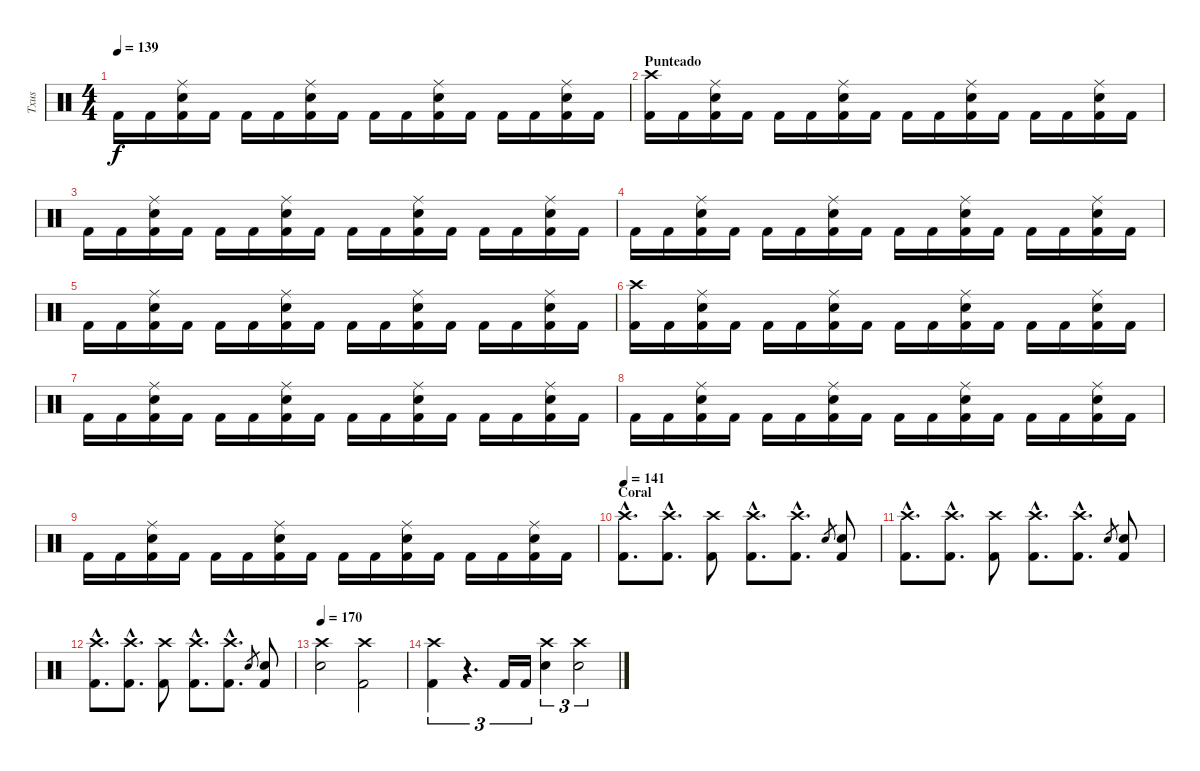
\track ("Txus" "Txus") {instrument percussion}
\staff {score}
\articulation defaults
\ts (4 4)
\tempo 139
\clef neutral
\ks c "Kick (hit) 2".16{dy f} "Kick (hit) 2".16
("Kick (hit) 2" "Electric Snare (hit)" "Ride (middle)").16 "Kick (hit) 2".16 "Kick (hit) 2".16 "Kick (hit) 2".16 ("Kick (hit) 2" "Electric Snare (hit)" "Ride (middle)").16 "Kick (hit) 2".16 "Kick (hit) 2".16 "Kick (hit) 2".16 ("Kick (hit) 2" "Electric Snare (hit)" "Ride (middle)").16 "Kick (hit) 2".16 "Kick (hit) 2".16 "Kick (hit) 2".16 ("Kick (hit) 2" "Electric Snare (hit)" "Ride (middle)").16 "Kick (hit) 2".16 |
\section ("" "Punteado")
("Kick (hit) 2" "Crash high (hit)").16 "Kick (hit) 2".16 ("Kick (hit) 2" "Electric Snare (hit)" "Ride (middle)").16 "Kick (hit) 2".16 "Kick (hit) 2".16 "Kick (hit) 2".16 ("Kick (hit) 2" "Electric Snare (hit)" "Ride (middle)").16 "Kick (hit) 2".16 "Kick (hit) 2".16 "Kick (hit) 2".16 ("Kick (hit) 2" "Electric Snare (hit)" "Ride (middle)").16 "Kick (hit) 2".16 "Kick (hit) 2".16 "Kick (hit) 2".16 ("Kick (hit) 2" "Electric Snare (hit)" "Ride (middle)").16 "Kick (hit) 2".16 |
"Kick (hit) 2".16 "Kick (hit) 2".16 ("Kick (hit) 2" "Electric Snare (hit)" "Ride (middle)").16 "Kick (hit) 2".16 "Kick (hit) 2".16 "Kick (hit) 2".16 ("Kick (hit) 2" "Electric Snare (hit)" "Ride (middle)").16 "Kick (hit) 2".16 "Kick (hit) 2".16 "Kick (hit) 2".16 ("Kick (hit) 2" "Electric Snare (hit)" "Ride (middle)").16 "Kick (hit) 2".16 "Kick (hit) 2".16 "Kick (hit) 2".16 ("Kick (hit) 2" "Electric Snare (hit)" "Ride (middle)").16 "Kick (hit) 2".16 |
"Kick (hit) 2".16 "Kick (hit) 2".16 ("Kick (hit) 2" "Electric Snare (hit)" "Ride (middle)").16 "Kick (hit) 2".16 "Kick (hit) 2".16 "Kick (hit) 2".16 ("Kick (hit) 2" "Electric Snare (hit)" "Ride (middle)").16 "Kick (hit) 2".16 "Kick (hit) 2".16 "Kick (hit) 2".16 ("Kick (hit) 2" "Electric Snare (hit)" "Ride (middle)").16 "Kick (hit) 2".16 "Kick (hit) 2".16 "Kick (hit) 2".16 ("Kick (hit) 2" "Electric Snare (hit)" "Ride (middle)").16 "Kick (hit) 2".16 |
"Kick (hit) 2".16 "Kick (hit) 2".16 ("Kick (hit) 2" "Electric Snare (hit)" "Ride (middle)").16 "Kick (hit) 2".16 "Kick (hit) 2".16 "Kick (hit) 2".16 ("Kick (hit) 2" "Electric Snare (hit)" "Ride (middle)").16 "Kick (hit) 2".16 "Kick (hit) 2".16 "Kick (hit) 2".16 ("Kick (hit) 2" "Electric Snare (hit)" "Ride (middle)").16 "Kick (hit) 2".16 "Kick (hit) 2".16 "Kick (hit) 2".16 ("Kick (hit) 2" "Electric Snare (hit)" "Ride (middle)").16 "Kick (hit) 2".16 |
("Kick (hit) 2" "Crash high (hit)").16 "Kick (hit) 2".16 ("Kick (hit) 2" "Electric Snare (hit)" "Ride (middle)").16 "Kick (hit) 2".16 "Kick (hit) 2".16 "Kick (hit) 2".16 ("Kick (hit) 2" "Electric Snare (hit)" "Ride (middle)").16 "Kick (hit) 2".16 "Kick (hit) 2".16 "Kick (hit) 2".16 ("Kick (hit) 2" "Electric Snare (hit)" "Ride (middle)").16 "Kick (hit) 2".16 "Kick (hit) 2".16 "Kick (hit) 2".16 ("Kick (hit) 2" "Electric Snare (hit)" "Ride (middle)").16 "Kick (hit) 2".16 |
"Kick (hit) 2".16 "Kick (hit) 2".16 ("Kick (hit) 2" "Electric Snare (hit)" "Ride (middle)").16 "Kick (hit) 2".16 "Kick (hit) 2".16 "Kick (hit) 2".16 ("Kick (hit) 2" "Electric Snare (hit)" "Ride (middle)").16 "Kick (hit) 2".16 "Kick (hit) 2".16 "Kick (hit) 2".16 ("Kick (hit) 2" "Electric Snare (hit)" "Ride (middle)").16 "Kick (hit) 2".16 "Kick (hit) 2".16 "Kick (hit) 2".16 ("Kick (hit) 2" "Electric Snare (hit)" "Ride (middle)").16 "Kick (hit) 2".16 |
"Kick (hit) 2".16 "Kick (hit) 2".16 ("Kick (hit) 2" "Electric Snare (hit)" "Ride (middle)").16 "Kick (hit) 2".16 "Kick (hit) 2".16 "Kick (hit) 2".16 ("Kick (hit) 2" "Electric Snare (hit)" "Ride (middle)").16 "Kick (hit) 2".16 "Kick (hit) 2".16 "Kick (hit) 2".16 ("Kick (hit) 2" "Electric Snare (hit)" "Ride (middle)").16 "Kick (hit) 2".16 "Kick (hit) 2".16 "Kick (hit) 2".16 ("Kick (hit) 2" "Electric Snare (hit)" "Ride (middle)").16 "Kick (hit) 2".16 |
"Kick (hit) 2".16 "Kick (hit) 2".16 ("Kick (hit) 2" "Electric Snare (hit)" "Ride (middle)").16 "Kick (hit) 2".16 "Kick (hit) 2".16 "Kick (hit) 2".16 ("Kick (hit) 2" "Electric Snare (hit)" "Ride (middle)").16 "Kick (hit) 2".16 "Kick (hit) 2".16 "Kick (hit) 2".16 ("Kick (hit) 2" "Electric Snare (hit)" "Ride (middle)").16 "Kick (hit) 2".16 "Kick (hit) 2".16 "Kick (hit) 2".16 ("Kick (hit) 2" "Electric Snare (hit)" "Ride (middle)").16 "Kick (hit) 2".16 |
\section ("" "Coral")
\tempo 141
("Kick (hit) 2"{hac} "Crash high (hit)"{hac}).8{d} ("Kick (hit) 2"{hac} "Crash high (hit)"{hac}).8{d} ("Kick (hit) 2" "Crash high (hit)").8 ("Kick (hit) 2"{hac} "Crash high (hit)"{hac}).8{d} ("Kick (hit) 2"{hac} "Crash high (hit)"{hac}).8{d} "Electric Snare (hit)".8{gr} ("Kick (hit) 2" "Electric Snare (hit)").8 |
("Kick (hit) 2"{hac} "Crash high (hit)"{hac}).8{d} ("Kick (hit) 2"{hac} "Crash high (hit)"{hac}).8{d} ("Kick (hit) 2" "Crash high (hit)").8 ("Kick (hit) 2"{hac} "Crash high (hit)"{hac}).8{d} ("Kick (hit) 2"{hac} "Crash high (hit)"{hac}).8{d} "Electric Snare (hit)".8{gr} ("Kick (hit) 2" "Electric Snare (hit)").8 |
("Kick (hit) 2"{hac} "Crash high (hit)"{hac}).8{d} ("Kick (hit) 2"{hac} "Crash high (hit)"{hac}).8{d} ("Kick (hit) 2" "Crash high (hit)").8 ("Kick (hit) 2"{hac} "Crash high (hit)"{hac}).8{d} ("Kick (hit) 2"{hac} "Crash high (hit)"{hac}).8{d} "Electric Snare (hit)".8{gr} ("Kick (hit) 2" "Electric Snare (hit)").8 |
\tempo 170
("Crash high (hit)" "Electric Snare (hit)").2 ("Kick (hit) 2" "Crash high (hit)").2 |
("Kick (hit) 2" "Crash high (hit)").4{tu (3 2)} r.4{d tu (3 2)} "Kick (hit) 2".16{tu (3 2)} "Kick (hit) 2".16{tu (3 2)} ("Electric Snare (hit)" "Crash high (hit)").4{tu (3 2)} ("Electric Snare (hit)" "Crash high (hit)").2{tu (3 2)}
